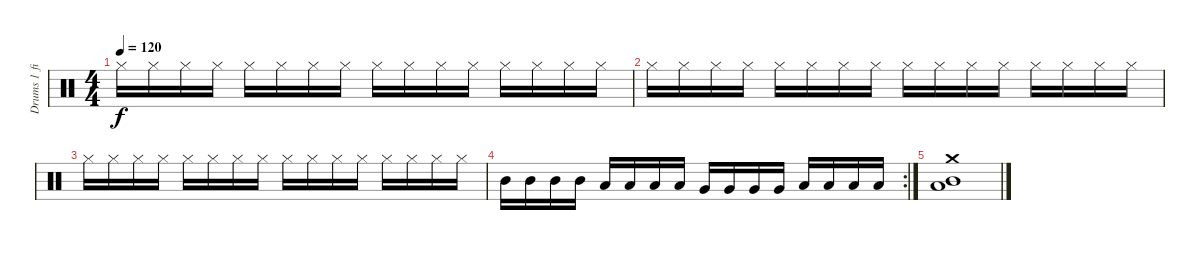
\track ("Drums 1 filler" "Drums 1 fi") {instrument percussion}
\staff {score}
\articulation defaults
\ts (4 4)
\tempo 120
\clef neutral
\ks c "Hi-Hat (closed)".16{dy f} "Hi-Hat (closed)".16 "Hi-Hat (closed)".16 "Hi-Hat (closed)".16 "Hi-Hat (closed)".16 "Hi-Hat (closed)".16 "Hi-Hat (closed)".16 "Hi-Hat (closed)".16 "Hi-Hat (closed)".16 "Hi-Hat (closed)".16 "Hi-Hat (closed)".16 "Hi-Hat (closed)".16 "Hi-Hat (closed)".16 "Hi-Hat (closed)".16 "Hi-Hat (closed)".16 "Hi-Hat (closed)".16
|
"Hi-Hat (closed)".16 "Hi-Hat (closed)".16 "Hi-Hat (closed)".16 "Hi-Hat (closed)".16 "Hi-Hat (closed)".16 "Hi-Hat (closed)".16 "Hi-Hat (closed)".16 "Hi-Hat (closed)".16 "Hi-Hat (closed)".16 "Hi-Hat (closed)".16 "Hi-Hat (closed)".16 "Hi-Hat (closed)".16 "Hi-Hat (closed)".16 "Hi-Hat (closed)".16 "Hi-Hat (closed)".16 "Hi-Hat (closed)".16 |
"Hi-Hat (closed)".16 "Hi-Hat (closed)".16 "Hi-Hat (closed)".16 "Hi-Hat (closed)".16 "Hi-Hat (closed)".16 "Hi-Hat (closed)".16 "Hi-Hat (closed)".16 "Hi-Hat (closed)".16 "Hi-Hat (closed)".16 "Hi-Hat (closed)".16 "Hi-Hat (closed)".16 "Hi-Hat (closed)".16 "Hi-Hat (closed)".16 "Hi-Hat (closed)".16 "Hi-Hat (closed)".16 "Hi-Hat (closed)".16 |
\rc 2 "Mid Tom (hit)".16 "Mid Tom (hit)".16 "Mid Tom (hit)".16 "Mid Tom (hit)".16 "Low Tom (hit)".16 "Low Tom (hit)".16 "Low Tom (hit)".16 "Low Tom (hit)".16 "Very Low Tom (hit)".16 "Very Low Tom (hit)".16 "Very Low Tom (hit)".16 "Very Low Tom (hit)".16 "Low Floor Tom (hit)".16 "Low Floor Tom (hit)".16 "Low Floor Tom (hit)".16 "Low Floor Tom (hit)".16
|
("Crash medium (hit)" "Mid Tom (hit)" "Low Tom (hit)").1
